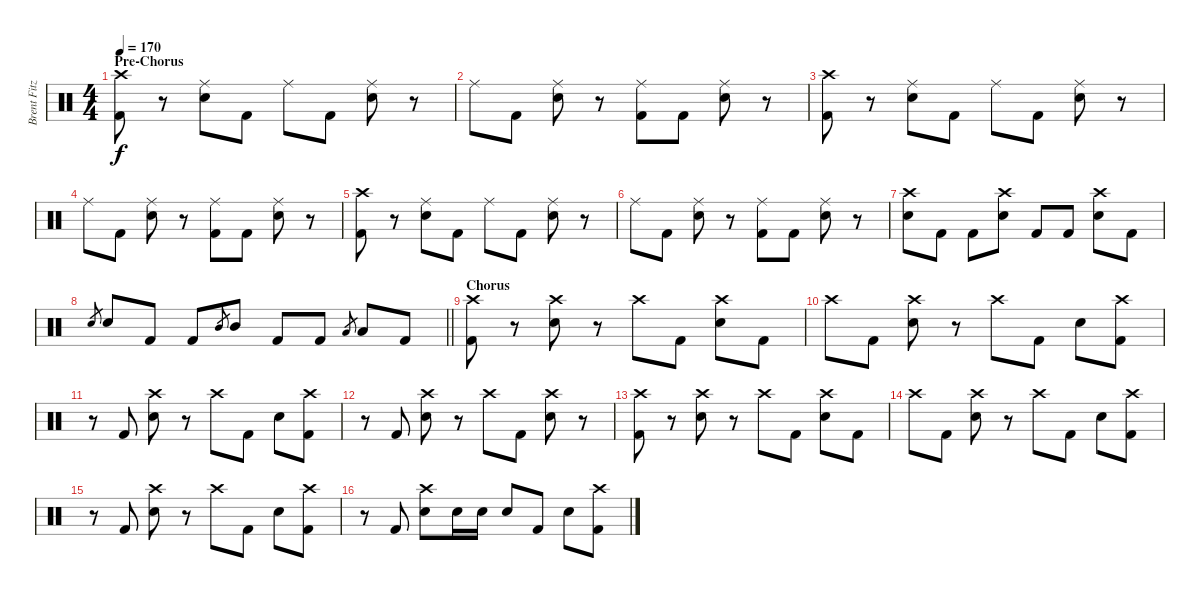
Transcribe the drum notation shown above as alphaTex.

\track ("Brent Fitz" "Brent Fitz") {instrument percussion}
\staff {score}
\articulation defaults
\ts (4 4)
\section ("" "Pre-Chorus")
\tempo 170
\clef neutral
\ks c
("Crash high (hit)" "Kick (hit) 2").8{dy f} r.8 ("Ride (middle)" "Electric Snare (hit)").8 "Kick (hit) 2".8 "Ride (middle)".8 "Kick (hit) 2".8 ("Ride (middle)" "Electric Snare (hit)").8 r.8 |
"Ride (middle)".8 "Kick (hit) 2".8 ("Ride (middle)" "Electric Snare (hit)").8 r.8 ("Ride (middle)" "Kick (hit) 2").8 "Kick (hit) 2".8 ("Ride (middle)" "Electric Snare (hit)").8 r.8 |
("Crash high (hit)" "Kick (hit) 2").8 r.8 ("Ride (middle)" "Electric Snare (hit)").8 "Kick (hit) 2".8 "Ride (middle)".8 "Kick (hit) 2".8 ("Ride (middle)" "Electric Snare (hit)").8 r.8 |
"Ride (middle)".8 "Kick (hit) 2".8 ("Ride (middle)" "Electric Snare (hit)").8 r.8 ("Ride (middle)" "Kick (hit) 2").8 "Kick (hit) 2".8 ("Ride (middle)" "Electric Snare (hit)").8 r.8 |
("Crash high (hit)" "Kick (hit) 2").8 r.8 ("Ride (middle)" "Electric Snare (hit)").8 "Kick (hit) 2".8 "Ride (middle)".8 "Kick (hit) 2".8 ("Ride (middle)" "Electric Snare (hit)").8 r.8 |
"Ride (middle)".8 "Kick (hit) 2".8 ("Ride (middle)" "Electric Snare (hit)").8 r.8 ("Ride (middle)" "Kick (hit) 2").8 "Kick (hit) 2".8 ("Ride (middle)" "Electric Snare (hit)").8 r.8 |
("Crash high (hit)" "Electric Snare (hit)").8 "Kick (hit) 2".8 "Kick (hit) 2".8 ("Crash high (hit)" "Electric Snare (hit)").8 "Kick (hit) 2".8 "Kick (hit) 2".8 ("Crash high (hit)" "Electric Snare (hit)").8 "Kick (hit) 2".8 |
\barLineRight lightlight "Electric Snare (hit)".8{gr} "Electric Snare (hit)".8 "Kick (hit) 2".8 "Kick (hit) 2".8 "Mid Tom (hit)".8{gr} "Mid Tom (hit)".8 "Kick (hit) 2".8 "Kick (hit) 2".8 "Low Tom (hit)".8{gr} "Low Tom (hit)".8 "Kick (hit) 2".8
|
\section ("" "Chorus")
("Crash high (hit)" "Kick (hit) 2").8 r.8 ("Crash high (hit)" "Electric Snare (hit)").8 r.8 "Crash high (hit)".8 "Kick (hit) 2".8 ("Crash high (hit)" "Electric Snare (hit)").8 "Kick (hit) 2".8 |
"Crash high (hit)".8 "Kick (hit) 2".8 ("Crash high (hit)" "Electric Snare (hit)").8 r.8 "Crash high (hit)".8 "Kick (hit) 2".8 "Electric Snare (hit)".8 ("Crash high (hit)" "Kick (hit) 2").8 |
r.8 "Kick (hit) 2".8 ("Crash high (hit)" "Electric Snare (hit)").8 r.8 "Crash high (hit)".8 "Kick (hit) 2".8 "Electric Snare (hit)".8 ("Crash high (hit)" "Kick (hit) 2").8 |
r.8 "Kick (hit) 2".8 ("Crash high (hit)" "Electric Snare (hit)").8 r.8 "Crash high (hit)".8 "Kick (hit) 2".8 ("Crash high (hit)" "Electric Snare (hit)").8 r.8 |
("Crash high (hit)" "Kick (hit) 2").8 r.8 ("Crash high (hit)" "Electric Snare (hit)").8 r.8 "Crash high (hit)".8 "Kick (hit) 2".8 ("Crash high (hit)" "Electric Snare (hit)").8 "Kick (hit) 2".8 |
"Crash high (hit)".8 "Kick (hit) 2".8 ("Crash high (hit)" "Electric Snare (hit)").8 r.8 "Crash high (hit)".8 "Kick (hit) 2".8 "Electric Snare (hit)".8 ("Crash high (hit)" "Kick (hit) 2").8 |
r.8 "Kick (hit) 2".8 ("Crash high (hit)" "Electric Snare (hit)").8 r.8 "Crash high (hit)".8 "Kick (hit) 2".8 "Electric Snare (hit)".8 ("Crash high (hit)" "Kick (hit) 2").8 |
r.8 "Kick (hit) 2".8 ("Crash high (hit)" "Electric Snare (hit)").8 "Electric Snare (hit)".16 "Electric Snare (hit)".16 "Electric Snare (hit)".8 "Kick (hit) 2".8 "Electric Snare (hit)".8 ("Crash high (hit)" "Kick (hit) 2").8
